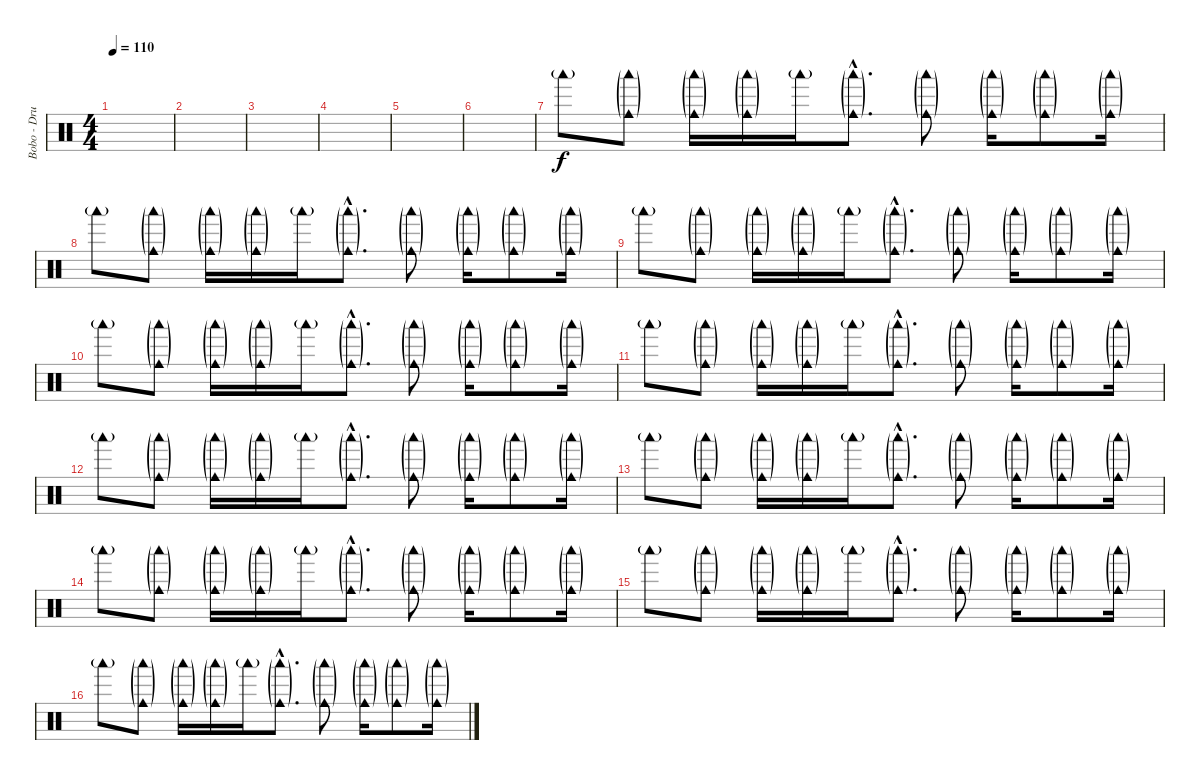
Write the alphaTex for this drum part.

\track ("Bobo - Drums" "Bobo - Dru") {instrument percussion}
\staff {score}
\articulation defaults
\ts (4 4)
\tempo 110
\clef neutral
\ks c
|
|
|
|
|
|
"Woodblock low (hit)"{g}.8 ("Woodblock low (hit)"{g} "Cowbell medium (hit)"{g}).8 ("Woodblock low (hit)"{g} "Cowbell medium (hit)"{g}).16 ("Woodblock low (hit)"{g} "Cowbell medium (hit)"{g}).16 "Woodblock low (hit)"{g}.16 ("Woodblock low (hit)"{g hac} "Cowbell medium (hit)"{g hac}).8{d} ("Woodblock low (hit)"{g} "Cowbell medium (hit)"{g}).8 ("Woodblock low (hit)"{g} "Cowbell medium (hit)"{g}).16 ("Woodblock low (hit)"{g} "Cowbell medium (hit)"{g}).8 ("Woodblock low (hit)"{g} "Cowbell medium (hit)"{g}).16 |
"Woodblock low (hit)"{g}.8 ("Woodblock low (hit)"{g} "Cowbell medium (hit)"{g}).8 ("Woodblock low (hit)"{g} "Cowbell medium (hit)"{g}).16 ("Woodblock low (hit)"{g} "Cowbell medium (hit)"{g}).16 "Woodblock low (hit)"{g}.16 ("Woodblock low (hit)"{g hac} "Cowbell medium (hit)"{g hac}).8{d} ("Woodblock low (hit)"{g} "Cowbell medium (hit)"{g}).8 ("Woodblock low (hit)"{g} "Cowbell medium (hit)"{g}).16 ("Woodblock low (hit)"{g} "Cowbell medium (hit)"{g}).8 ("Woodblock low (hit)"{g} "Cowbell medium (hit)"{g}).16 |
"Woodblock low (hit)"{g}.8 ("Woodblock low (hit)"{g} "Cowbell medium (hit)"{g}).8 ("Woodblock low (hit)"{g} "Cowbell medium (hit)"{g}).16 ("Woodblock low (hit)"{g} "Cowbell medium (hit)"{g}).16 "Woodblock low (hit)"{g}.16 ("Woodblock low (hit)"{g hac} "Cowbell medium (hit)"{g hac}).8{d} ("Woodblock low (hit)"{g} "Cowbell medium (hit)"{g}).8 ("Woodblock low (hit)"{g} "Cowbell medium (hit)"{g}).16 ("Woodblock low (hit)"{g} "Cowbell medium (hit)"{g}).8 ("Woodblock low (hit)"{g} "Cowbell medium (hit)"{g}).16 |
"Woodblock low (hit)"{g}.8 ("Woodblock low (hit)"{g} "Cowbell medium (hit)"{g}).8 ("Woodblock low (hit)"{g} "Cowbell medium (hit)"{g}).16 ("Woodblock low (hit)"{g} "Cowbell medium (hit)"{g}).16 "Woodblock low (hit)"{g}.16 ("Woodblock low (hit)"{g hac} "Cowbell medium (hit)"{g hac}).8{d} ("Woodblock low (hit)"{g} "Cowbell medium (hit)"{g}).8 ("Woodblock low (hit)"{g} "Cowbell medium (hit)"{g}).16 ("Woodblock low (hit)"{g} "Cowbell medium (hit)"{g}).8 ("Woodblock low (hit)"{g} "Cowbell medium (hit)"{g}).16 |
"Woodblock low (hit)"{g}.8 ("Woodblock low (hit)"{g} "Cowbell medium (hit)"{g}).8 ("Woodblock low (hit)"{g} "Cowbell medium (hit)"{g}).16 ("Woodblock low (hit)"{g} "Cowbell medium (hit)"{g}).16 "Woodblock low (hit)"{g}.16 ("Woodblock low (hit)"{g hac} "Cowbell medium (hit)"{g hac}).8{d} ("Woodblock low (hit)"{g} "Cowbell medium (hit)"{g}).8 ("Woodblock low (hit)"{g} "Cowbell medium (hit)"{g}).16 ("Woodblock low (hit)"{g} "Cowbell medium (hit)"{g}).8 ("Woodblock low (hit)"{g} "Cowbell medium (hit)"{g}).16 |
"Woodblock low (hit)"{g}.8 ("Woodblock low (hit)"{g} "Cowbell medium (hit)"{g}).8 ("Woodblock low (hit)"{g} "Cowbell medium (hit)"{g}).16 ("Woodblock low (hit)"{g} "Cowbell medium (hit)"{g}).16 "Woodblock low (hit)"{g}.16 ("Woodblock low (hit)"{g hac} "Cowbell medium (hit)"{g hac}).8{d} ("Woodblock low (hit)"{g} "Cowbell medium (hit)"{g}).8 ("Woodblock low (hit)"{g} "Cowbell medium (hit)"{g}).16 ("Woodblock low (hit)"{g} "Cowbell medium (hit)"{g}).8 ("Woodblock low (hit)"{g} "Cowbell medium (hit)"{g}).16 |
"Woodblock low (hit)"{g}.8 ("Woodblock low (hit)"{g} "Cowbell medium (hit)"{g}).8 ("Woodblock low (hit)"{g} "Cowbell medium (hit)"{g}).16 ("Woodblock low (hit)"{g} "Cowbell medium (hit)"{g}).16 "Woodblock low (hit)"{g}.16 ("Woodblock low (hit)"{g hac} "Cowbell medium (hit)"{g hac}).8{d} ("Woodblock low (hit)"{g} "Cowbell medium (hit)"{g}).8 ("Woodblock low (hit)"{g} "Cowbell medium (hit)"{g}).16 ("Woodblock low (hit)"{g} "Cowbell medium (hit)"{g}).8 ("Woodblock low (hit)"{g} "Cowbell medium (hit)"{g}).16 |
"Woodblock low (hit)"{g}.8 ("Woodblock low (hit)"{g} "Cowbell medium (hit)"{g}).8 ("Woodblock low (hit)"{g} "Cowbell medium (hit)"{g}).16 ("Woodblock low (hit)"{g} "Cowbell medium (hit)"{g}).16 "Woodblock low (hit)"{g}.16 ("Woodblock low (hit)"{g hac} "Cowbell medium (hit)"{g hac}).8{d} ("Woodblock low (hit)"{g} "Cowbell medium (hit)"{g}).8 ("Woodblock low (hit)"{g} "Cowbell medium (hit)"{g}).16 ("Woodblock low (hit)"{g} "Cowbell medium (hit)"{g}).8 ("Woodblock low (hit)"{g} "Cowbell medium (hit)"{g}).16 |
"Woodblock low (hit)"{g}.8 ("Woodblock low (hit)"{g} "Cowbell medium (hit)"{g}).8 ("Woodblock low (hit)"{g} "Cowbell medium (hit)"{g}).16 ("Woodblock low (hit)"{g} "Cowbell medium (hit)"{g}).16 "Woodblock low (hit)"{g}.16 ("Woodblock low (hit)"{g hac} "Cowbell medium (hit)"{g hac}).8{d} ("Woodblock low (hit)"{g} "Cowbell medium (hit)"{g}).8 ("Woodblock low (hit)"{g} "Cowbell medium (hit)"{g}).16 ("Woodblock low (hit)"{g} "Cowbell medium (hit)"{g}).8 ("Woodblock low (hit)"{g} "Cowbell medium (hit)"{g}).16 |
"Woodblock low (hit)"{g}.8 ("Woodblock low (hit)"{g} "Cowbell medium (hit)"{g}).8 ("Woodblock low (hit)"{g} "Cowbell medium (hit)"{g}).16 ("Woodblock low (hit)"{g} "Cowbell medium (hit)"{g}).16 "Woodblock low (hit)"{g}.16 ("Woodblock low (hit)"{g hac} "Cowbell medium (hit)"{g hac}).8{d} ("Woodblock low (hit)"{g} "Cowbell medium (hit)"{g}).8 ("Woodblock low (hit)"{g} "Cowbell medium (hit)"{g}).16 ("Woodblock low (hit)"{g} "Cowbell medium (hit)"{g}).8 ("Woodblock low (hit)"{g} "Cowbell medium (hit)"{g}).16
